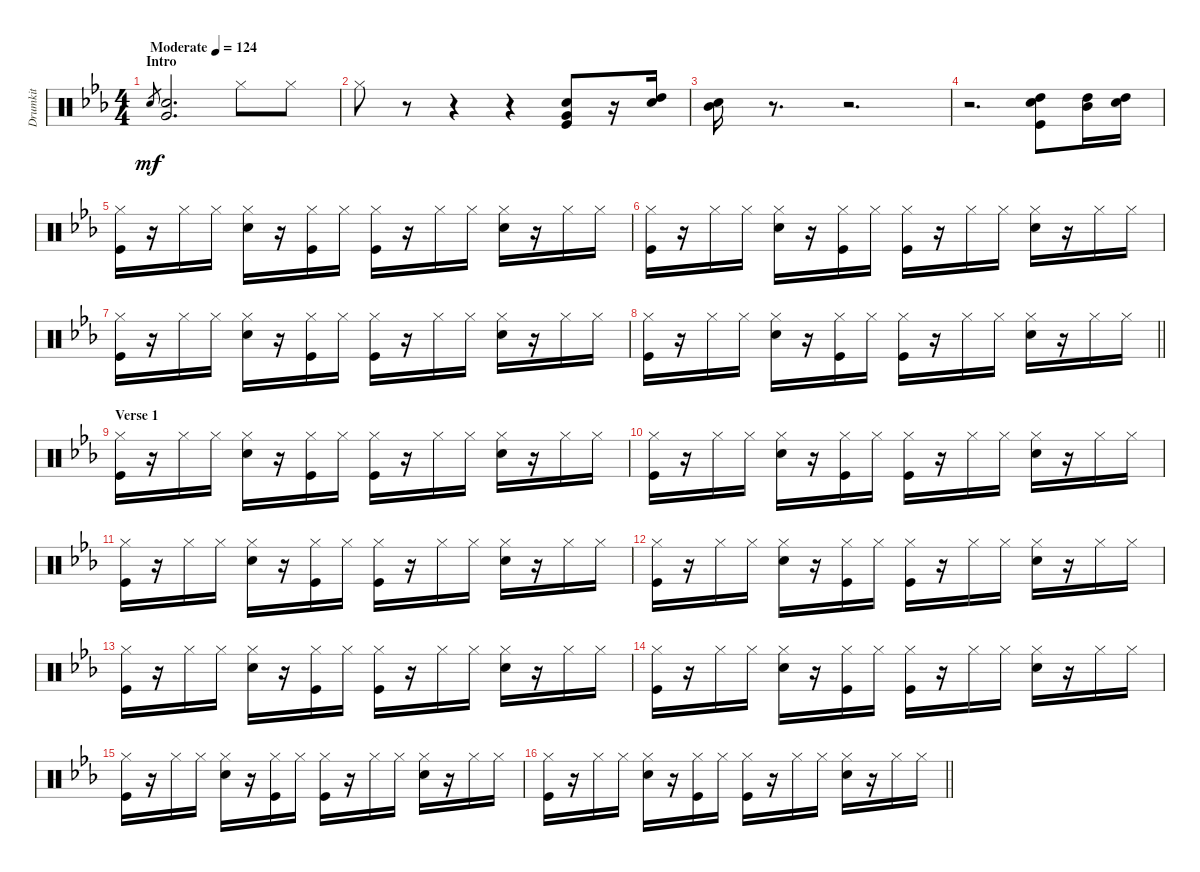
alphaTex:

\track ("Drumkit" "Drumkit") {instrument percussion}
\staff {score}
\articulation defaults
\ts (4 4)
\section ("" "Intro")
\tempo (124 "Moderate")
\clef neutral
\ks eb "Snare (hit)".8{gr dy mf}
("Snare (hit) 2" "Very Low Tom (hit)").2{d} "Hi-Hat (closed)".8 "Hi-Hat (closed)".8 |
"Hi-Hat (closed)".8 r.8 r.4 r.4 ("Snare (hit) 2" "Kick (hit)" "Very Low Tom (hit)").8 r.16 ("Snare (hit) 2" "High Tom (hit)").16 |
("Snare (hit) 2" "Mid Tom (hit)").16 r.8{d} r.2{d} |
r.2{d} ("Snare (hit) 2" "Kick (hit)" "High Tom (hit)").8 ("High Tom (hit)" "Mid Tom (hit)").16 ("Snare (hit) 2" "High Tom (hit)").16 |
("Hi-Hat (closed)" "Kick (hit)").16 r.16 "Hi-Hat (closed)".16 "Hi-Hat (closed)".16 ("Hi-Hat (closed)" "Snare (hit) 2").16 r.16 ("Hi-Hat (closed)" "Kick (hit)").16 "Hi-Hat (closed)".16 ("Hi-Hat (closed)" "Kick (hit)").16 r.16 "Hi-Hat (closed)".16 "Hi-Hat (closed)".16 ("Hi-Hat (closed)" "Snare (hit) 2").16 r.16 "Hi-Hat (closed)".16 "Hi-Hat (closed)".16 |
("Hi-Hat (closed)" "Kick (hit)").16 r.16 "Hi-Hat (closed)".16 "Hi-Hat (closed)".16 ("Hi-Hat (closed)" "Snare (hit) 2").16 r.16 ("Hi-Hat (closed)" "Kick (hit)").16 "Hi-Hat (closed)".16 ("Hi-Hat (closed)" "Kick (hit)").16 r.16 "Hi-Hat (closed)".16 "Hi-Hat (closed)".16 ("Hi-Hat (closed)" "Snare (hit) 2").16 r.16 "Hi-Hat (closed)".16 "Hi-Hat (closed)".16 |
("Hi-Hat (closed)" "Kick (hit)").16 r.16 "Hi-Hat (closed)".16 "Hi-Hat (closed)".16 ("Hi-Hat (closed)" "Snare (hit) 2").16 r.16 ("Hi-Hat (closed)" "Kick (hit)").16 "Hi-Hat (closed)".16 ("Hi-Hat (closed)" "Kick (hit)").16 r.16 "Hi-Hat (closed)".16 "Hi-Hat (closed)".16 ("Hi-Hat (closed)" "Snare (hit) 2").16 r.16 "Hi-Hat (closed)".16 "Hi-Hat (closed)".16 |
\barLineRight lightlight
("Hi-Hat (closed)" "Kick (hit)").16 r.16 "Hi-Hat (closed)".16 "Hi-Hat (closed)".16 ("Hi-Hat (closed)" "Snare (hit) 2").16 r.16 ("Hi-Hat (closed)" "Kick (hit)").16 "Hi-Hat (closed)".16 ("Hi-Hat (closed)" "Kick (hit)").16 r.16 "Hi-Hat (closed)".16 "Hi-Hat (closed)".16 ("Hi-Hat (closed)" "Snare (hit) 2").16 r.16 "Hi-Hat (closed)".16 "Hi-Hat (closed)".16 |
\section ("" "Verse 1")
("Hi-Hat (closed)" "Kick (hit)").16 r.16 "Hi-Hat (closed)".16 "Hi-Hat (closed)".16 ("Hi-Hat (closed)" "Snare (hit) 2").16 r.16 ("Hi-Hat (closed)" "Kick (hit)").16 "Hi-Hat (closed)".16 ("Hi-Hat (closed)" "Kick (hit)").16 r.16 "Hi-Hat (closed)".16 "Hi-Hat (closed)".16 ("Hi-Hat (closed)" "Snare (hit) 2").16 r.16 "Hi-Hat (closed)".16 "Hi-Hat (closed)".16 |
("Hi-Hat (closed)" "Kick (hit)").16 r.16 "Hi-Hat (closed)".16 "Hi-Hat (closed)".16 ("Hi-Hat (closed)" "Snare (hit) 2").16 r.16 ("Hi-Hat (closed)" "Kick (hit)").16 "Hi-Hat (closed)".16 ("Hi-Hat (closed)" "Kick (hit)").16 r.16 "Hi-Hat (closed)".16 "Hi-Hat (closed)".16 ("Hi-Hat (closed)" "Snare (hit) 2").16 r.16 "Hi-Hat (closed)".16 "Hi-Hat (closed)".16 |
("Hi-Hat (closed)" "Kick (hit)").16 r.16 "Hi-Hat (closed)".16 "Hi-Hat (closed)".16 ("Hi-Hat (closed)" "Snare (hit) 2").16 r.16 ("Hi-Hat (closed)" "Kick (hit)").16 "Hi-Hat (closed)".16 ("Hi-Hat (closed)" "Kick (hit)").16 r.16 "Hi-Hat (closed)".16 "Hi-Hat (closed)".16 ("Hi-Hat (closed)" "Snare (hit) 2").16 r.16 "Hi-Hat (closed)".16 "Hi-Hat (closed)".16 |
("Hi-Hat (closed)" "Kick (hit)").16 r.16 "Hi-Hat (closed)".16 "Hi-Hat (closed)".16 ("Hi-Hat (closed)" "Snare (hit) 2").16 r.16 ("Hi-Hat (closed)" "Kick (hit)").16 "Hi-Hat (closed)".16 ("Hi-Hat (closed)" "Kick (hit)").16 r.16 "Hi-Hat (closed)".16 "Hi-Hat (closed)".16 ("Hi-Hat (closed)" "Snare (hit) 2").16 r.16 "Hi-Hat (closed)".16 "Hi-Hat (closed)".16 |
("Hi-Hat (closed)" "Kick (hit)").16 r.16 "Hi-Hat (closed)".16 "Hi-Hat (closed)".16 ("Hi-Hat (closed)" "Snare (hit) 2").16 r.16 ("Hi-Hat (closed)" "Kick (hit)").16 "Hi-Hat (closed)".16 ("Hi-Hat (closed)" "Kick (hit)").16 r.16 "Hi-Hat (closed)".16 "Hi-Hat (closed)".16 ("Hi-Hat (closed)" "Snare (hit) 2").16 r.16 "Hi-Hat (closed)".16 "Hi-Hat (closed)".16 |
("Hi-Hat (closed)" "Kick (hit)").16 r.16 "Hi-Hat (closed)".16 "Hi-Hat (closed)".16 ("Hi-Hat (closed)" "Snare (hit) 2").16 r.16 ("Hi-Hat (closed)" "Kick (hit)").16 "Hi-Hat (closed)".16 ("Hi-Hat (closed)" "Kick (hit)").16 r.16 "Hi-Hat (closed)".16 "Hi-Hat (closed)".16 ("Hi-Hat (closed)" "Snare (hit) 2").16 r.16 "Hi-Hat (closed)".16 "Hi-Hat (closed)".16 |
("Hi-Hat (closed)" "Kick (hit)").16 r.16 "Hi-Hat (closed)".16 "Hi-Hat (closed)".16 ("Hi-Hat (closed)" "Snare (hit) 2").16 r.16 ("Hi-Hat (closed)" "Kick (hit)").16 "Hi-Hat (closed)".16 ("Hi-Hat (closed)" "Kick (hit)").16 r.16 "Hi-Hat (closed)".16 "Hi-Hat (closed)".16 ("Hi-Hat (closed)" "Snare (hit) 2").16 r.16 "Hi-Hat (closed)".16 "Hi-Hat (closed)".16 |
\barLineRight lightlight
("Hi-Hat (closed)" "Kick (hit)").16 r.16 "Hi-Hat (closed)".16 "Hi-Hat (closed)".16 ("Hi-Hat (closed)" "Snare (hit) 2").16 r.16 ("Hi-Hat (closed)" "Kick (hit)").16 "Hi-Hat (closed)".16 ("Hi-Hat (closed)" "Kick (hit)").16 r.16 "Hi-Hat (closed)".16 "Hi-Hat (closed)".16 ("Hi-Hat (closed)" "Snare (hit) 2").16 r.16 "Hi-Hat (closed)".16 "Hi-Hat (closed)".16
